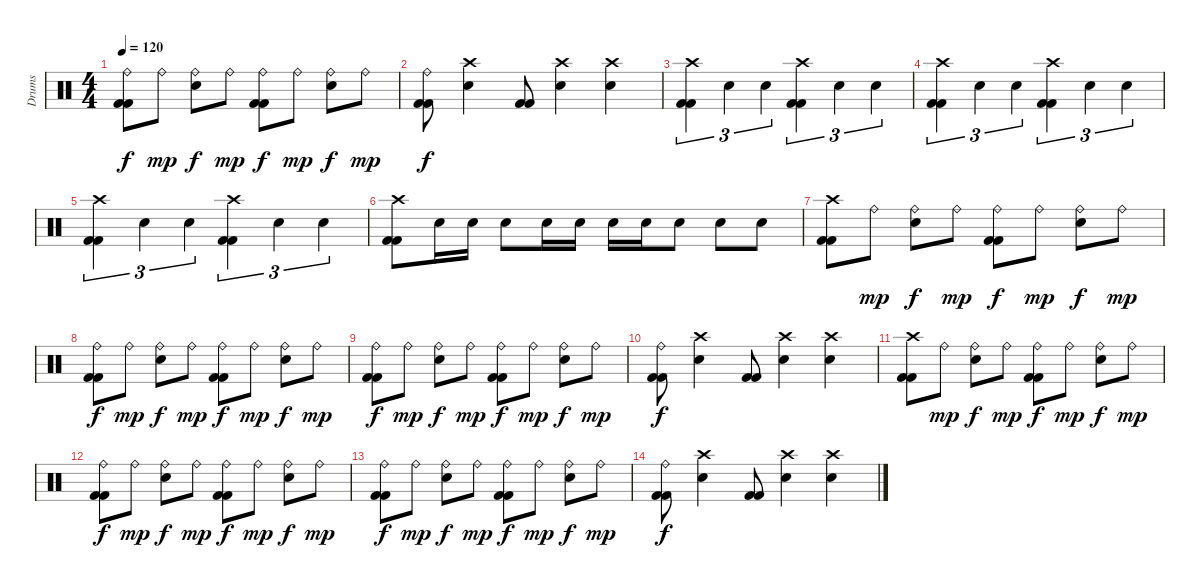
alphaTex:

\track ("Drums" "Drums") {instrument percussion}
\staff {score}
\articulation defaults
\ts (4 4)
\tempo 120
\clef neutral
\ks c
("Ride (bell)" "Kick (hit) 2" "Kick (hit) 2").8{dy f} "Ride (bell)".8{dy mp} ("Ride (bell)" "Snare (hit) 2").8{dy f} "Ride (bell)".8{dy mp} ("Ride (bell)" "Kick (hit) 2" "Kick (hit) 2").8{dy f} "Ride (bell)".8{dy mp} ("Ride (bell)" "Snare (hit) 2").8{dy f} "Ride (bell)".8{dy mp} |
("Ride (bell)" "Kick (hit) 2" "Kick (hit) 2").8{dy f} ("Crash high (hit)" "Snare (hit) 2").4 ("Kick (hit) 2" "Kick (hit) 2").8 ("Crash high (hit)" "Snare (hit) 2").4 ("Crash high (hit)" "Snare (hit) 2").4 |
("Crash high (hit)" "Kick (hit) 2" "Kick (hit) 2").4{tu (3 2)} "Snare (hit) 2".4{tu (3 2)} "Snare (hit) 2".4{tu (3 2)} ("Crash high (hit)" "Kick (hit) 2" "Kick (hit) 2").4{tu (3 2)} "Snare (hit) 2".4{tu (3 2)} "Snare (hit) 2".4{tu (3 2)} |
("Crash high (hit)" "Kick (hit) 2" "Kick (hit) 2").4{tu (3 2)} "Snare (hit) 2".4{tu (3 2)} "Snare (hit) 2".4{tu (3 2)} ("Crash high (hit)" "Kick (hit) 2" "Kick (hit) 2").4{tu (3 2)} "Snare (hit) 2".4{tu (3 2)} "Snare (hit) 2".4{tu (3 2)} |
("Crash high (hit)" "Kick (hit) 2" "Kick (hit) 2").4{tu (3 2)} "Snare (hit) 2".4{tu (3 2)} "Snare (hit) 2".4{tu (3 2)} ("Crash high (hit)" "Kick (hit) 2" "Kick (hit) 2").4{tu (3 2)} "Snare (hit) 2".4{tu (3 2)} "Snare (hit) 2".4{tu (3 2)} |
("Crash high (hit)" "Kick (hit) 2" "Kick (hit) 2").8 "Snare (hit) 2".16 "Snare (hit) 2".16 "Snare (hit) 2".8 "Snare (hit) 2".16 "Snare (hit) 2".16 "Snare (hit) 2".16 "Snare (hit) 2".16 "Snare (hit) 2".8 "Snare (hit) 2".8 "Snare (hit) 2".8 |
("Crash high (hit)" "Kick (hit) 2" "Kick (hit) 2").8 "Ride (bell)".8{dy mp} ("Ride (bell)" "Snare (hit) 2").8{dy f} "Ride (bell)".8{dy mp} ("Ride (bell)" "Kick (hit) 2" "Kick (hit) 2").8{dy f} "Ride (bell)".8{dy mp} ("Ride (bell)" "Snare (hit) 2").8{dy f} "Ride (bell)".8{dy mp} |
("Ride (bell)" "Kick (hit) 2" "Kick (hit) 2").8{dy f} "Ride (bell)".8{dy mp} ("Ride (bell)" "Snare (hit) 2").8{dy f} "Ride (bell)".8{dy mp} ("Ride (bell)" "Kick (hit) 2" "Kick (hit) 2").8{dy f} "Ride (bell)".8{dy mp} ("Ride (bell)" "Snare (hit) 2").8{dy f} "Ride (bell)".8{dy mp} |
("Ride (bell)" "Kick (hit) 2" "Kick (hit) 2").8{dy f} "Ride (bell)".8{dy mp} ("Ride (bell)" "Snare (hit) 2").8{dy f} "Ride (bell)".8{dy mp} ("Ride (bell)" "Kick (hit) 2" "Kick (hit) 2").8{dy f} "Ride (bell)".8{dy mp} ("Ride (bell)" "Snare (hit) 2").8{dy f} "Ride (bell)".8{dy mp} |
("Ride (bell)" "Kick (hit) 2" "Kick (hit) 2").8{dy f} ("Crash high (hit)" "Snare (hit) 2").4 ("Kick (hit) 2" "Kick (hit) 2").8 ("Crash high (hit)" "Snare (hit) 2").4 ("Crash high (hit)" "Snare (hit) 2").4 |
("Crash high (hit)" "Kick (hit) 2" "Kick (hit) 2").8{volume 0} "Ride (bell)".8{dy mp} ("Ride (bell)" "Snare (hit) 2").8{dy f} "Ride (bell)".8{dy mp} ("Ride (bell)" "Kick (hit) 2" "Kick (hit) 2").8{dy f} "Ride (bell)".8{dy mp} ("Ride (bell)" "Snare (hit) 2").8{dy f} "Ride (bell)".8{dy mp} |
("Ride (bell)" "Kick (hit) 2" "Kick (hit) 2").8{dy f} "Ride (bell)".8{dy mp} ("Ride (bell)" "Snare (hit) 2").8{dy f} "Ride (bell)".8{dy mp} ("Ride (bell)" "Kick (hit) 2" "Kick (hit) 2").8{dy f} "Ride (bell)".8{dy mp} ("Ride (bell)" "Snare (hit) 2").8{dy f} "Ride (bell)".8{dy mp} |
("Ride (bell)" "Kick (hit) 2" "Kick (hit) 2").8{dy f} "Ride (bell)".8{dy mp} ("Ride (bell)" "Snare (hit) 2").8{dy f} "Ride (bell)".8{dy mp} ("Ride (bell)" "Kick (hit) 2" "Kick (hit) 2").8{dy f} "Ride (bell)".8{dy mp} ("Ride (bell)" "Snare (hit) 2").8{dy f} "Ride (bell)".8{dy mp} |
("Ride (bell)" "Kick (hit) 2" "Kick (hit) 2").8{dy f} ("Crash high (hit)" "Snare (hit) 2").4 ("Kick (hit) 2" "Kick (hit) 2").8 ("Crash high (hit)" "Snare (hit) 2").4 ("Crash high (hit)" "Snare (hit) 2").4
